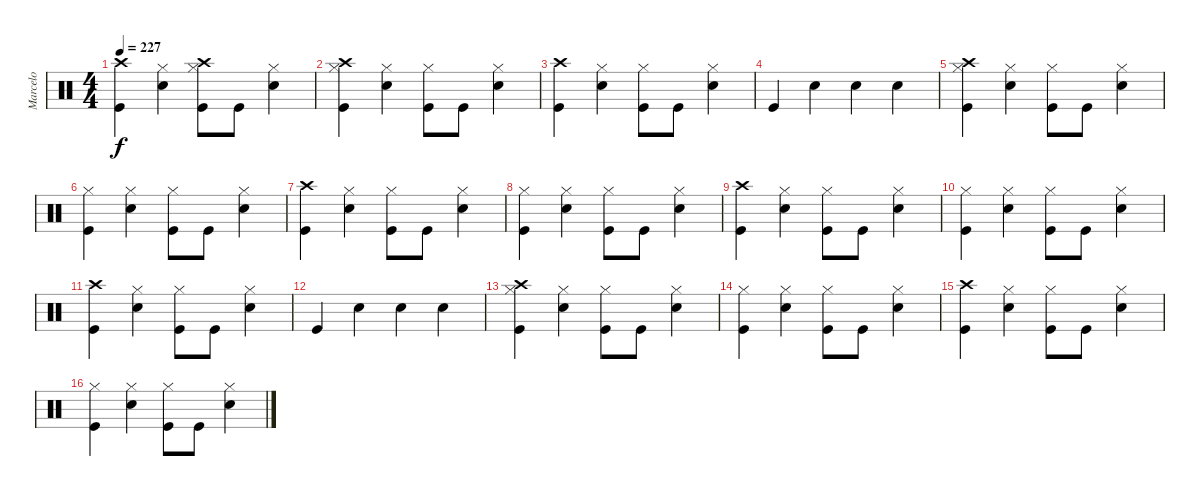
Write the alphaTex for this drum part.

\track ("Marcelo" "Marcelo") {instrument percussion}
\staff {score}
\articulation defaults
\ts (4 4)
\tempo 227
\clef neutral
\ks c
("Crash high (hit)" "Kick (hit)").4{dy f} ("Hi-Hat (closed)" "Snare (hit) 2").4 ("Crash high (hit)" "Hi-Hat (closed)" "Kick (hit)").8 "Kick (hit)".8 ("Hi-Hat (closed)" "Snare (hit) 2").4 |
("Crash high (hit)" "Hi-Hat (closed)" "Kick (hit)").4 ("Hi-Hat (closed)" "Snare (hit) 2").4 ("Hi-Hat (closed)" "Kick (hit)").8 "Kick (hit)".8 ("Hi-Hat (closed)" "Snare (hit) 2").4 |
("Crash high (hit)" "Kick (hit)").4 ("Hi-Hat (closed)" "Snare (hit) 2").4 ("Hi-Hat (closed)" "Kick (hit)").8 "Kick (hit)".8 ("Hi-Hat (closed)" "Snare (hit) 2").4 |
"Kick (hit)".4 "Snare (hit) 2".4 "Snare (hit) 2".4 "Snare (hit) 2".4 |
("Crash high (hit)" "Hi-Hat (closed)" "Kick (hit)").4 ("Hi-Hat (closed)" "Snare (hit) 2").4 ("Hi-Hat (closed)" "Kick (hit)").8 "Kick (hit)".8 ("Hi-Hat (closed)" "Snare (hit) 2").4 |
("Hi-Hat (closed)" "Kick (hit)").4 ("Hi-Hat (closed)" "Snare (hit) 2").4 ("Hi-Hat (closed)" "Kick (hit)").8 "Kick (hit)".8 ("Hi-Hat (closed)" "Snare (hit) 2").4 |
("Crash high (hit)" "Kick (hit)").4 ("Hi-Hat (closed)" "Snare (hit) 2").4 ("Hi-Hat (closed)" "Kick (hit)").8 "Kick (hit)".8 ("Hi-Hat (closed)" "Snare (hit) 2").4 |
("Hi-Hat (closed)" "Kick (hit)").4 ("Hi-Hat (closed)" "Snare (hit) 2").4 ("Hi-Hat (closed)" "Kick (hit)").8 "Kick (hit)".8 ("Hi-Hat (closed)" "Snare (hit) 2").4 |
("Crash high (hit)" "Kick (hit)").4 ("Hi-Hat (closed)" "Snare (hit) 2").4 ("Hi-Hat (closed)" "Kick (hit)").8 "Kick (hit)".8 ("Hi-Hat (closed)" "Snare (hit) 2").4 |
("Hi-Hat (closed)" "Kick (hit)").4 ("Hi-Hat (closed)" "Snare (hit) 2").4 ("Hi-Hat (closed)" "Kick (hit)").8 "Kick (hit)".8 ("Hi-Hat (closed)" "Snare (hit) 2").4 |
("Crash high (hit)" "Kick (hit)").4 ("Hi-Hat (closed)" "Snare (hit) 2").4 ("Hi-Hat (closed)" "Kick (hit)").8 "Kick (hit)".8 ("Hi-Hat (closed)" "Snare (hit) 2").4 |
"Kick (hit)".4 "Snare (hit) 2".4 "Snare (hit) 2".4 "Snare (hit) 2".4 |
("Crash high (hit)" "Hi-Hat (closed)" "Kick (hit)").4 ("Hi-Hat (closed)" "Snare (hit) 2").4 ("Hi-Hat (closed)" "Kick (hit)").8 "Kick (hit)".8 ("Hi-Hat (closed)" "Snare (hit) 2").4 |
("Hi-Hat (closed)" "Kick (hit)").4 ("Hi-Hat (closed)" "Snare (hit) 2").4 ("Hi-Hat (closed)" "Kick (hit)").8 "Kick (hit)".8 ("Hi-Hat (closed)" "Snare (hit) 2").4 |
("Crash high (hit)" "Kick (hit)").4 ("Hi-Hat (closed)" "Snare (hit) 2").4 ("Hi-Hat (closed)" "Kick (hit)").8 "Kick (hit)".8 ("Hi-Hat (closed)" "Snare (hit) 2").4 |
("Hi-Hat (closed)" "Kick (hit)").4 ("Hi-Hat (closed)" "Snare (hit) 2").4 ("Hi-Hat (closed)" "Kick (hit)").8 "Kick (hit)".8 ("Hi-Hat (closed)" "Snare (hit) 2").4
